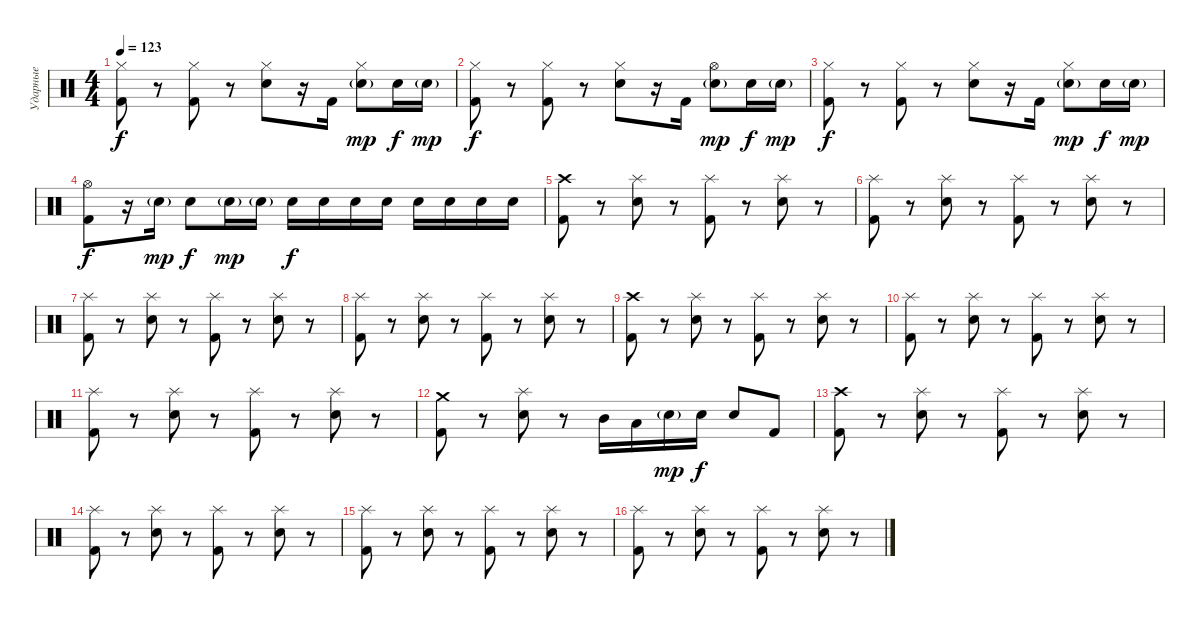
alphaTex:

\track ("Ударные" "Ударные") {instrument percussion}
\staff {score}
\articulation defaults
\ts (4 4)
\tempo 123
\clef neutral
\ks c
("Hi-Hat (closed)" "Kick (hit) 2").8{dy f} r.8 ("Hi-Hat (closed)" "Kick (hit) 2").8 r.8 ("Hi-Hat (closed)" "Electric Snare (hit)").8 r.16 "Kick (hit) 2".16 ("Hi-Hat (closed)" "Electric Snare (hit)"{g}).8{dy mp} "Electric Snare (hit)".16{dy f} "Electric Snare (hit)"{g}.16{dy mp} |
("Hi-Hat (closed)" "Kick (hit) 2").8{dy f} r.8 ("Hi-Hat (closed)" "Kick (hit) 2").8 r.8 ("Hi-Hat (closed)" "Electric Snare (hit)").8 r.16 "Kick (hit) 2".16 ("Hi-Hat (open)" "Electric Snare (hit)"{g}).8{dy mp} "Electric Snare (hit)".16{dy f} "Electric Snare (hit)"{g}.16{dy mp} |
("Hi-Hat (closed)" "Kick (hit) 2").8{dy f} r.8 ("Hi-Hat (closed)" "Kick (hit) 2").8 r.8 ("Hi-Hat (closed)" "Electric Snare (hit)").8 r.16 "Kick (hit) 2".16 ("Hi-Hat (closed)" "Electric Snare (hit)"{g}).8{dy mp} "Electric Snare (hit)".16{dy f} "Electric Snare (hit)"{g}.16{dy mp} |
("Hi-Hat (open)" "Kick (hit) 2").8{dy f} r.16 "Electric Snare (hit)"{g}.16{dy mp} "Electric Snare (hit)".8{dy f} "Electric Snare (hit)"{g}.16{dy mp} "Electric Snare (hit)"{g}.16 "Electric Snare (hit)".16{dy f} "Electric Snare (hit)".16 "Electric Snare (hit)".16 "Electric Snare (hit)".16 "Electric Snare (hit)".16 "Electric Snare (hit)".16 "Electric Snare (hit)".16 "Electric Snare (hit)".16 |
("Crash high (hit)" "Kick (hit) 2").8 r.8 ("Splash (hit)" "Electric Snare (hit)").8 r.8 ("Splash (hit)" "Kick (hit) 2").8 r.8 ("Splash (hit)" "Electric Snare (hit)").8 r.8 |
("Splash (hit)" "Kick (hit) 2").8 r.8 ("Splash (hit)" "Electric Snare (hit)").8 r.8 ("Splash (hit)" "Kick (hit) 2").8 r.8 ("Splash (hit)" "Electric Snare (hit)").8 r.8 |
("Splash (hit)" "Kick (hit) 2").8 r.8 ("Splash (hit)" "Electric Snare (hit)").8 r.8 ("Splash (hit)" "Kick (hit) 2").8 r.8 ("Splash (hit)" "Electric Snare (hit)").8 r.8 |
("Splash (hit)" "Kick (hit) 2").8 r.8 ("Splash (hit)" "Electric Snare (hit)").8 r.8 ("Splash (hit)" "Kick (hit) 2").8 r.8 ("Splash (hit)" "Electric Snare (hit)").8 r.8 |
("Crash high (hit)" "Kick (hit) 2").8 r.8 ("Splash (hit)" "Electric Snare (hit)").8 r.8 ("Splash (hit)" "Kick (hit) 2").8 r.8 ("Splash (hit)" "Electric Snare (hit)").8 r.8 |
("Splash (hit)" "Kick (hit) 2").8 r.8 ("Splash (hit)" "Electric Snare (hit)").8 r.8 ("Splash (hit)" "Kick (hit) 2").8 r.8 ("Splash (hit)" "Electric Snare (hit)").8 r.8 |
("Splash (hit)" "Kick (hit) 2").8 r.8 ("Splash (hit)" "Electric Snare (hit)").8 r.8 ("Splash (hit)" "Kick (hit) 2").8 r.8 ("Splash (hit)" "Electric Snare (hit)").8 r.8 |
("Crash medium (hit)" "Kick (hit) 2").8 r.8 ("Splash (hit)" "Electric Snare (hit)").8 r.8 "Mid Tom (hit)".16 "Low Tom (hit)".16 "Electric Snare (hit)"{g}.16{dy mp} "Electric Snare (hit)".16{dy f} "Electric Snare (hit)".8 "Kick (hit) 2".8 |
("Crash high (hit)" "Kick (hit) 2").8 r.8 ("Splash (hit)" "Electric Snare (hit)").8 r.8 ("Splash (hit)" "Kick (hit) 2").8 r.8 ("Splash (hit)" "Electric Snare (hit)").8 r.8 |
("Splash (hit)" "Kick (hit) 2").8 r.8 ("Splash (hit)" "Electric Snare (hit)").8 r.8 ("Splash (hit)" "Kick (hit) 2").8 r.8 ("Splash (hit)" "Electric Snare (hit)").8 r.8 |
("Splash (hit)" "Kick (hit) 2").8 r.8 ("Splash (hit)" "Electric Snare (hit)").8 r.8 ("Splash (hit)" "Kick (hit) 2").8 r.8 ("Splash (hit)" "Electric Snare (hit)").8 r.8 |
("Splash (hit)" "Kick (hit) 2").8 r.8 ("Splash (hit)" "Electric Snare (hit)").8 r.8 ("Splash (hit)" "Kick (hit) 2").8 r.8 ("Splash (hit)" "Electric Snare (hit)").8 r.8
